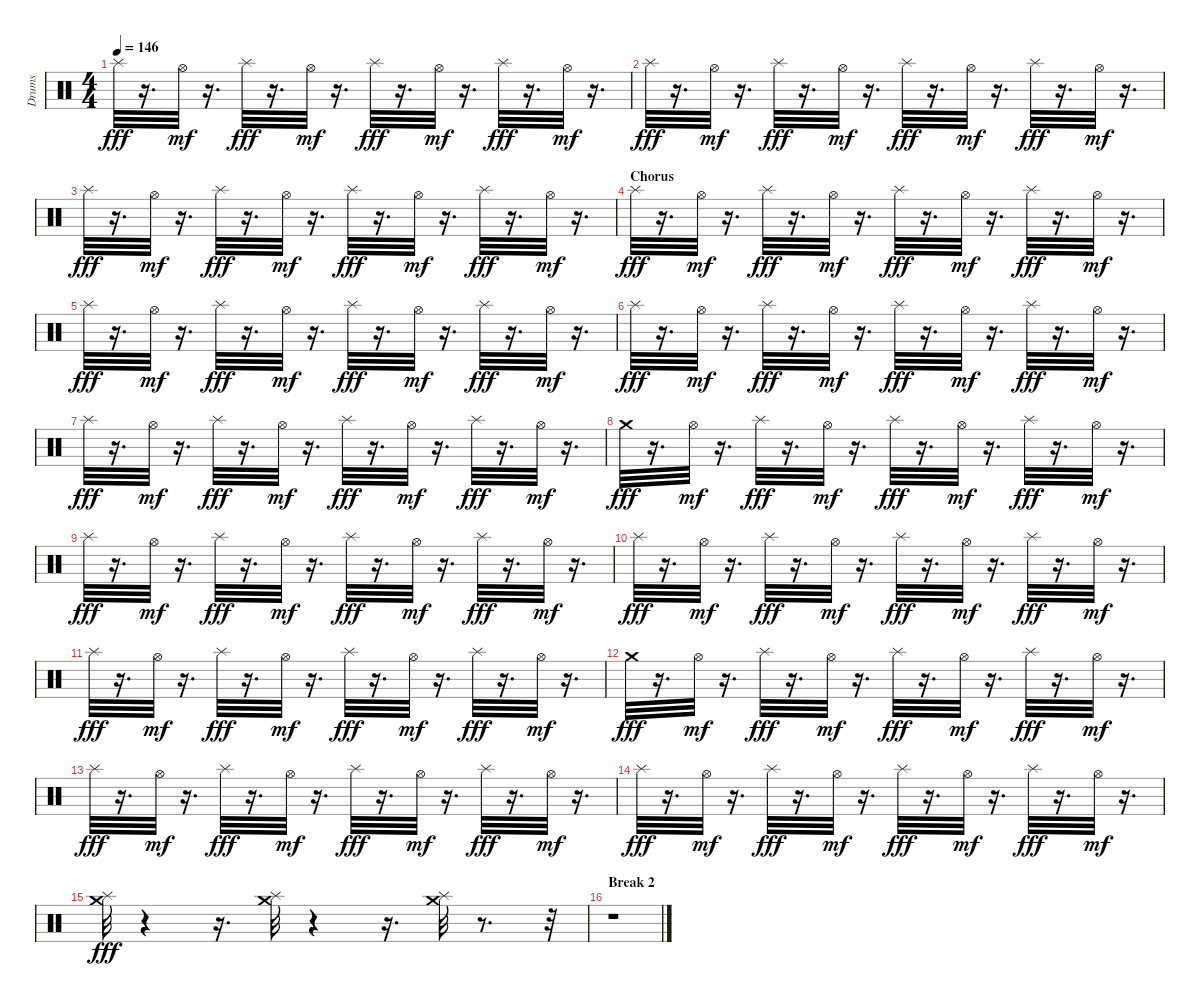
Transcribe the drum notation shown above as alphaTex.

\track ("Drums" "Drums") {instrument percussion}
\staff {score}
\articulation defaults
\ts (4 4)
\tempo 146
\clef neutral
\ks c "Splash (hit)".32{dy fff}
r.16{d} "Hi-Hat (open)".32{dy mf} r.16{d} "Splash (hit)".32{dy fff} r.16{d} "Hi-Hat (open)".32{dy mf} r.16{d} "Splash (hit)".32{dy fff} r.16{d} "Hi-Hat (open)".32{dy mf} r.16{d} "Splash (hit)".32{dy fff} r.16{d} "Hi-Hat (open)".32{dy mf} r.16{d} |
"Splash (hit)".32{dy fff} r.16{d} "Hi-Hat (open)".32{dy mf} r.16{d} "Splash (hit)".32{dy fff} r.16{d} "Hi-Hat (open)".32{dy mf} r.16{d} "Splash (hit)".32{dy fff} r.16{d} "Hi-Hat (open)".32{dy mf} r.16{d} "Splash (hit)".32{dy fff} r.16{d} "Hi-Hat (open)".32{dy mf} r.16{d} |
"Splash (hit)".32{dy fff} r.16{d} "Hi-Hat (open)".32{dy mf} r.16{d} "Splash (hit)".32{dy fff} r.16{d} "Hi-Hat (open)".32{dy mf} r.16{d} "Splash (hit)".32{dy fff} r.16{d} "Hi-Hat (open)".32{dy mf} r.16{d} "Splash (hit)".32{dy fff} r.16{d} "Hi-Hat (open)".32{dy mf} r.16{d} |
\section ("" "Chorus")
"Splash (hit)".32{dy fff} r.16{d} "Hi-Hat (open)".32{dy mf} r.16{d} "Splash (hit)".32{dy fff} r.16{d} "Hi-Hat (open)".32{dy mf} r.16{d} "Splash (hit)".32{dy fff} r.16{d} "Hi-Hat (open)".32{dy mf} r.16{d} "Splash (hit)".32{dy fff} r.16{d} "Hi-Hat (open)".32{dy mf} r.16{d} |
"Splash (hit)".32{dy fff} r.16{d} "Hi-Hat (open)".32{dy mf} r.16{d} "Splash (hit)".32{dy fff} r.16{d} "Hi-Hat (open)".32{dy mf} r.16{d} "Splash (hit)".32{dy fff} r.16{d} "Hi-Hat (open)".32{dy mf} r.16{d} "Splash (hit)".32{dy fff} r.16{d} "Hi-Hat (open)".32{dy mf} r.16{d} |
"Splash (hit)".32{dy fff} r.16{d} "Hi-Hat (open)".32{dy mf} r.16{d} "Splash (hit)".32{dy fff} r.16{d} "Hi-Hat (open)".32{dy mf} r.16{d} "Splash (hit)".32{dy fff} r.16{d} "Hi-Hat (open)".32{dy mf} r.16{d} "Splash (hit)".32{dy fff} r.16{d} "Hi-Hat (open)".32{dy mf} r.16{d} |
"Splash (hit)".32{dy fff} r.16{d} "Hi-Hat (open)".32{dy mf} r.16{d} "Splash (hit)".32{dy fff} r.16{d} "Hi-Hat (open)".32{dy mf} r.16{d} "Splash (hit)".32{dy fff} r.16{d} "Hi-Hat (open)".32{dy mf} r.16{d} "Splash (hit)".32{dy fff} r.16{d} "Hi-Hat (open)".32{dy mf} r.16{d} |
"Crash medium (hit)".32{dy fff} r.16{d} "Hi-Hat (open)".32{dy mf} r.16{d} "Splash (hit)".32{dy fff} r.16{d} "Hi-Hat (open)".32{dy mf} r.16{d} "Splash (hit)".32{dy fff} r.16{d} "Hi-Hat (open)".32{dy mf} r.16{d} "Splash (hit)".32{dy fff} r.16{d} "Hi-Hat (open)".32{dy mf} r.16{d} |
"Splash (hit)".32{dy fff} r.16{d} "Hi-Hat (open)".32{dy mf} r.16{d} "Splash (hit)".32{dy fff} r.16{d} "Hi-Hat (open)".32{dy mf} r.16{d} "Splash (hit)".32{dy fff} r.16{d} "Hi-Hat (open)".32{dy mf} r.16{d} "Splash (hit)".32{dy fff} r.16{d} "Hi-Hat (open)".32{dy mf} r.16{d} |
"Splash (hit)".32{dy fff} r.16{d} "Hi-Hat (open)".32{dy mf} r.16{d} "Splash (hit)".32{dy fff} r.16{d} "Hi-Hat (open)".32{dy mf} r.16{d} "Splash (hit)".32{dy fff} r.16{d} "Hi-Hat (open)".32{dy mf} r.16{d} "Splash (hit)".32{dy fff} r.16{d} "Hi-Hat (open)".32{dy mf} r.16{d} |
"Splash (hit)".32{dy fff} r.16{d} "Hi-Hat (open)".32{dy mf} r.16{d} "Splash (hit)".32{dy fff} r.16{d} "Hi-Hat (open)".32{dy mf} r.16{d} "Splash (hit)".32{dy fff} r.16{d} "Hi-Hat (open)".32{dy mf} r.16{d} "Splash (hit)".32{dy fff} r.16{d} "Hi-Hat (open)".32{dy mf} r.16{d} |
"Crash medium (hit)".32{dy fff} r.16{d} "Hi-Hat (open)".32{dy mf} r.16{d} "Splash (hit)".32{dy fff} r.16{d} "Hi-Hat (open)".32{dy mf} r.16{d} "Splash (hit)".32{dy fff} r.16{d} "Hi-Hat (open)".32{dy mf} r.16{d} "Splash (hit)".32{dy fff} r.16{d} "Hi-Hat (open)".32{dy mf} r.16{d} |
"Splash (hit)".32{dy fff} r.16{d} "Hi-Hat (open)".32{dy mf} r.16{d} "Splash (hit)".32{dy fff} r.16{d} "Hi-Hat (open)".32{dy mf} r.16{d} "Splash (hit)".32{dy fff} r.16{d} "Hi-Hat (open)".32{dy mf} r.16{d} "Splash (hit)".32{dy fff} r.16{d} "Hi-Hat (open)".32{dy mf} r.16{d} |
"Splash (hit)".32{dy fff} r.16{d} "Hi-Hat (open)".32{dy mf} r.16{d} "Splash (hit)".32{dy fff} r.16{d} "Hi-Hat (open)".32{dy mf} r.16{d} "Splash (hit)".32{dy fff} r.16{d} "Hi-Hat (open)".32{dy mf} r.16{d} "Splash (hit)".32{dy fff} r.16{d} "Hi-Hat (open)".32{dy mf} r.16{d} |
("Splash (hit)" "Crash medium (hit)").32{dy fff} r.4 r.16{d} ("Crash medium (hit)" "Splash (hit)").32 r.4 r.16{d} ("Splash (hit)" "Crash medium (hit)").32 r.8{d} r.32 |
\section ("" "Break 2")
r.1
